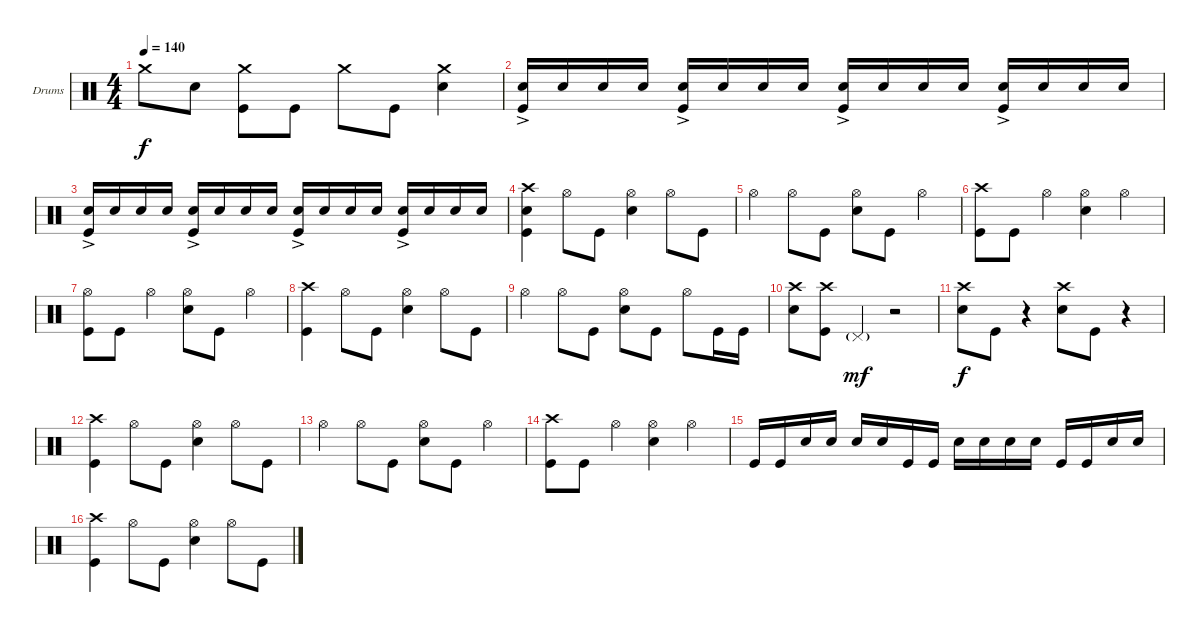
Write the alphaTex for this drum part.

\defaultSystemsLayout 4
\bracketExtendMode groupsimilarinstruments
\firstSystemTrackNameOrientation horizontal
\otherSystemsTrackNameOrientation horizontal
\track ("Drumkit" "Drums") {instrument percussion}
\staff {score}
\articulation defaults
\ts (4 4)
\tempo 140
\clef neutral
\ks c "Crash medium (hit)".8{dy f} "Snare (hit) 2".8
("Crash medium (hit)" "Kick (hit)").8 "Kick (hit)".8 "Crash medium (hit)".8 "Kick (hit)".8 ("Crash medium (hit)" "Snare (hit) 2").4 |
("Snare (hit) 2"{ac} "Kick (hit)").16 "Snare (hit) 2".16 "Snare (hit) 2".16 "Snare (hit) 2".16 ("Snare (hit) 2"{ac} "Kick (hit)").16 "Snare (hit) 2".16 "Snare (hit) 2".16 "Snare (hit) 2".16 ("Snare (hit) 2"{ac} "Kick (hit)").16 "Snare (hit) 2".16 "Snare (hit) 2".16 "Snare (hit) 2".16 ("Snare (hit) 2"{ac} "Kick (hit)").16 "Snare (hit) 2".16 "Snare (hit) 2".16 "Snare (hit) 2".16 |
("Snare (hit) 2"{ac} "Kick (hit)").16 "Snare (hit) 2".16 "Snare (hit) 2".16 "Snare (hit) 2".16 ("Snare (hit) 2"{ac} "Kick (hit)").16 "Snare (hit) 2".16 "Snare (hit) 2".16 "Snare (hit) 2".16 ("Snare (hit) 2"{ac} "Kick (hit)").16 "Snare (hit) 2".16 "Snare (hit) 2".16 "Snare (hit) 2".16 ("Snare (hit) 2"{ac} "Kick (hit)").16 "Snare (hit) 2".16 "Snare (hit) 2".16 "Snare (hit) 2".16 |
("Crash high (hit)" "Kick (hit)" "Snare (hit) 2").4 "Hi-Hat (open)".8 "Kick (hit)".8 ("Hi-Hat (open)" "Snare (hit) 2").4 "Hi-Hat (open)".8 "Kick (hit)".8 |
"Hi-Hat (open)".4 "Hi-Hat (open)".8 "Kick (hit)".8 ("Hi-Hat (open)" "Snare (hit) 2").8 "Kick (hit)".8 "Hi-Hat (open)".4 |
("Crash high (hit)" "Kick (hit)").8 "Kick (hit)".8 "Hi-Hat (open)".4 ("Hi-Hat (open)" "Snare (hit) 2").4 "Hi-Hat (open)".4 |
("Hi-Hat (open)" "Kick (hit)").8 "Kick (hit)".8 "Hi-Hat (open)".4 ("Hi-Hat (open)" "Snare (hit) 2").8 "Kick (hit)".8 "Hi-Hat (open)".4 |
("Crash high (hit)" "Kick (hit)").4 "Hi-Hat (open)".8 "Kick (hit)".8 ("Hi-Hat (open)" "Snare (hit) 2").4 "Hi-Hat (open)".8 "Kick (hit)".8 |
"Hi-Hat (open)".4 "Hi-Hat (open)".8 "Kick (hit)".8 ("Hi-Hat (open)" "Snare (hit) 2").8 "Kick (hit)".8 "Hi-Hat (open)".8 "Kick (hit)".16 "Kick (hit)".16 |
("Crash high (hit)" "Snare (hit) 2").8 ("Crash high (hit)" "Kick (hit)").8 "Pedal Hi-Hat (hit)"{g}.4{dy mf} r.2 |
("Crash high (hit)" "Snare (hit) 2").8{dy f} "Kick (hit)".8 r.4 ("Crash high (hit)" "Snare (hit) 2").8 "Kick (hit)".8 r.4 |
("Crash high (hit)" "Kick (hit)").4 "Hi-Hat (open)".8 "Kick (hit)".8 ("Hi-Hat (open)" "Snare (hit) 2").4 "Hi-Hat (open)".8 "Kick (hit)".8 |
"Hi-Hat (open)".4 "Hi-Hat (open)".8 "Kick (hit)".8 ("Hi-Hat (open)" "Snare (hit) 2").8 "Kick (hit)".8 "Hi-Hat (open)".4 |
("Crash high (hit)" "Kick (hit)").8 "Kick (hit)".8 "Hi-Hat (open)".4 ("Hi-Hat (open)" "Snare (hit) 2").4 "Hi-Hat (open)".4 |
"Kick (hit)".16 "Kick (hit)".16 "Snare (hit) 2".16 "Snare (hit) 2".16 "Snare (hit) 2".16 "Snare (hit) 2".16 "Kick (hit)".16 "Kick (hit)".16 "Snare (hit) 2".16 "Snare (hit) 2".16 "Snare (hit) 2".16 "Snare (hit) 2".16 "Kick (hit)".16 "Kick (hit)".16 "Snare (hit) 2".16 "Snare (hit) 2".16 |
("Crash high (hit)" "Kick (hit)").4 "Hi-Hat (open)".8 "Kick (hit)".8 ("Hi-Hat (open)" "Snare (hit) 2").4 "Hi-Hat (open)".8 "Kick (hit)".8
